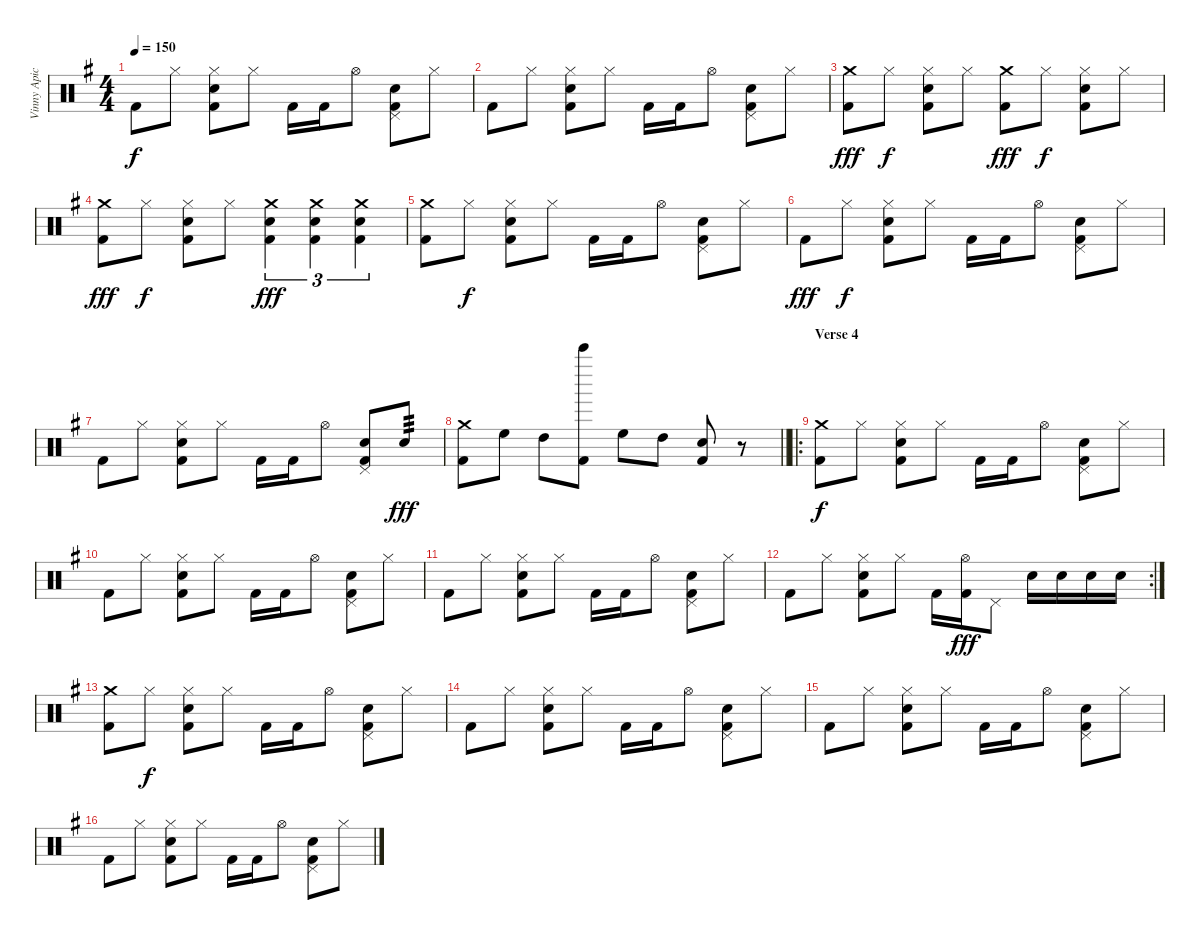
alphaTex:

\track ("Vinny Apice" "Vinny Apic") {instrument percussion}
\staff {score}
\articulation defaults
\ts (4 4)
\tempo 150
\clef neutral
\ks g "Kick (hit) 2".8{dy f} "Hi-Hat (closed)".8
("Hi-Hat (closed)" "Snare (hit) 2" "Kick (hit) 2").8 "Hi-Hat (closed)".8 "Kick (hit) 2".16 "Kick (hit) 2".16 "Hi-Hat (open)".8 ("Pedal Hi-Hat (hit)" "Snare (hit) 2" "Kick (hit) 2").8 "Hi-Hat (closed)".8 |
"Kick (hit) 2".8 "Hi-Hat (closed)".8 ("Hi-Hat (closed)" "Snare (hit) 2" "Kick (hit) 2").8 "Hi-Hat (closed)".8 "Kick (hit) 2".16 "Kick (hit) 2".16 "Hi-Hat (open)".8 ("Pedal Hi-Hat (hit)" "Snare (hit) 2" "Kick (hit) 2").8 "Hi-Hat (closed)".8 |
("Crash medium (hit)" "Kick (hit) 2").8{dy fff} "Hi-Hat (closed)".8{dy f} ("Hi-Hat (closed)" "Snare (hit) 2" "Kick (hit) 2").8 "Hi-Hat (closed)".8 ("Crash medium (hit)" "Kick (hit) 2").8{dy fff} "Hi-Hat (closed)".8{dy f} ("Hi-Hat (closed)" "Snare (hit) 2" "Kick (hit) 2").8 "Hi-Hat (closed)".8 |
("Crash medium (hit)" "Kick (hit) 2").8{dy fff} "Hi-Hat (closed)".8{dy f} ("Hi-Hat (closed)" "Snare (hit) 2" "Kick (hit) 2").8 "Hi-Hat (closed)".8 ("Crash medium (hit)" "Snare (hit) 2" "Kick (hit) 2").4{tu (3 2) dy fff} ("Crash medium (hit)" "Snare (hit) 2" "Kick (hit) 2").4{tu (3 2)} ("Crash medium (hit)" "Snare (hit) 2" "Kick (hit) 2").4{tu (3 2)} |
("Crash medium (hit)" "Kick (hit) 2").8 "Hi-Hat (closed)".8{dy f} ("Hi-Hat (closed)" "Snare (hit) 2" "Kick (hit) 2").8 "Hi-Hat (closed)".8 "Kick (hit) 2".16 "Kick (hit) 2".16 "Hi-Hat (open)".8 ("Pedal Hi-Hat (hit)" "Snare (hit) 2" "Kick (hit) 2").8 "Hi-Hat (closed)".8 |
"Kick (hit) 2".8{dy fff} "Hi-Hat (closed)".8{dy f} ("Hi-Hat (closed)" "Snare (hit) 2" "Kick (hit) 2").8 "Hi-Hat (closed)".8 "Kick (hit) 2".16 "Kick (hit) 2".16 "Hi-Hat (open)".8 ("Pedal Hi-Hat (hit)" "Snare (hit) 2" "Kick (hit) 2").8 "Hi-Hat (closed)".8 |
"Kick (hit) 2".8 "Hi-Hat (closed)".8 ("Hi-Hat (closed)" "Snare (hit) 2" "Kick (hit) 2").8 "Hi-Hat (closed)".8 "Kick (hit) 2".16 "Kick (hit) 2".16 "Hi-Hat (open)".8 ("Pedal Hi-Hat (hit)" "Snare (hit) 2" "Kick (hit) 2").8 "Snare (hit) 2".8{tp 3 dy fff} |
\barLineRight lightlight
("Crash medium (hit)" "Kick (hit) 2").8 "High Floor Tom (hit)".8 "High Tom (hit)".8 ("Bell Tree (hit)" "Kick (hit) 2").8 "High Floor Tom (hit)".8 "High Tom (hit)".8 ("Snare (hit) 2" "Kick (hit) 2").8 r.8 |
\ro
\section ("" "Verse 4")
("Crash medium (hit)" "Kick (hit) 2").8{dy f} "Hi-Hat (closed)".8 ("Hi-Hat (closed)" "Snare (hit) 2" "Kick (hit) 2").8 "Hi-Hat (closed)".8 "Kick (hit) 2".16 "Kick (hit) 2".16 "Hi-Hat (open)".8 ("Pedal Hi-Hat (hit)" "Snare (hit) 2" "Kick (hit) 2").8 "Hi-Hat (closed)".8 |
"Kick (hit) 2".8 "Hi-Hat (closed)".8 ("Hi-Hat (closed)" "Snare (hit) 2" "Kick (hit) 2").8 "Hi-Hat (closed)".8 "Kick (hit) 2".16 "Kick (hit) 2".16 "Hi-Hat (open)".8 ("Pedal Hi-Hat (hit)" "Snare (hit) 2" "Kick (hit) 2").8 "Hi-Hat (closed)".8 |
"Kick (hit) 2".8 "Hi-Hat (closed)".8 ("Hi-Hat (closed)" "Snare (hit) 2" "Kick (hit) 2").8 "Hi-Hat (closed)".8 "Kick (hit) 2".16 "Kick (hit) 2".16 "Hi-Hat (open)".8 ("Pedal Hi-Hat (hit)" "Snare (hit) 2" "Kick (hit) 2").8 "Hi-Hat (closed)".8 |
\rc 2 "Kick (hit) 2".8 "Hi-Hat (closed)".8
("Hi-Hat (closed)" "Snare (hit) 2" "Kick (hit) 2").8 "Hi-Hat (closed)".8 "Kick (hit) 2".16 ("Hi-Hat (open)" "Kick (hit) 2").16{dy fff} "Pedal Hi-Hat (hit)".8 "Snare (hit) 2".16 "Snare (hit) 2".16 "Snare (hit) 2".16 "Snare (hit) 2".16 |
("Crash medium (hit)" "Kick (hit) 2").8 "Hi-Hat (closed)".8{dy f} ("Hi-Hat (closed)" "Snare (hit) 2" "Kick (hit) 2").8 "Hi-Hat (closed)".8 "Kick (hit) 2".16 "Kick (hit) 2".16 "Hi-Hat (open)".8 ("Pedal Hi-Hat (hit)" "Snare (hit) 2" "Kick (hit) 2").8 "Hi-Hat (closed)".8 |
"Kick (hit) 2".8 "Hi-Hat (closed)".8 ("Hi-Hat (closed)" "Snare (hit) 2" "Kick (hit) 2").8 "Hi-Hat (closed)".8 "Kick (hit) 2".16 "Kick (hit) 2".16 "Hi-Hat (open)".8 ("Pedal Hi-Hat (hit)" "Snare (hit) 2" "Kick (hit) 2").8 "Hi-Hat (closed)".8 |
"Kick (hit) 2".8 "Hi-Hat (closed)".8 ("Hi-Hat (closed)" "Snare (hit) 2" "Kick (hit) 2").8 "Hi-Hat (closed)".8 "Kick (hit) 2".16 "Kick (hit) 2".16 "Hi-Hat (open)".8 ("Pedal Hi-Hat (hit)" "Snare (hit) 2" "Kick (hit) 2").8 "Hi-Hat (closed)".8 |
"Kick (hit) 2".8 "Hi-Hat (closed)".8 ("Hi-Hat (closed)" "Snare (hit) 2" "Kick (hit) 2").8 "Hi-Hat (closed)".8 "Kick (hit) 2".16 "Kick (hit) 2".16 "Hi-Hat (open)".8 ("Pedal Hi-Hat (hit)" "Snare (hit) 2" "Kick (hit) 2").8 "Hi-Hat (closed)".8
